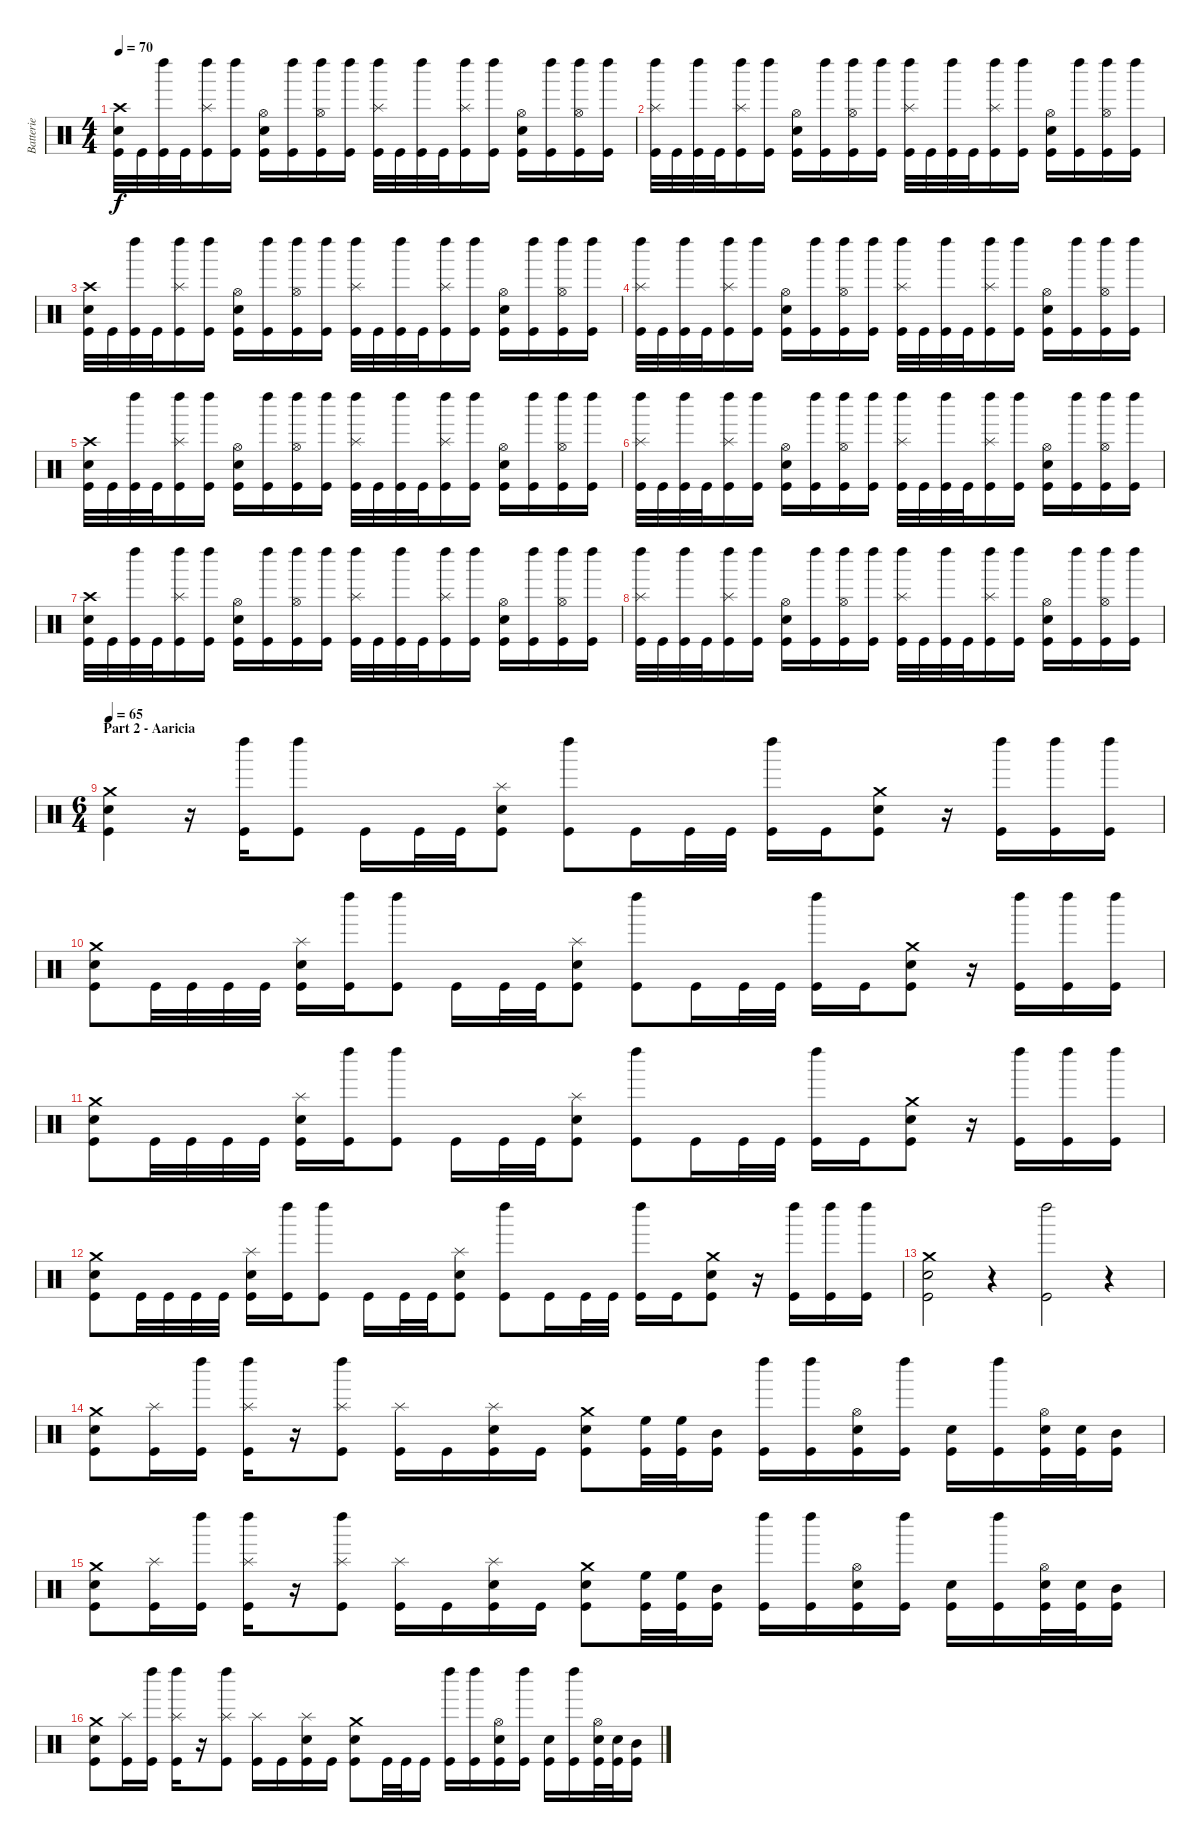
\track ("Batterie" "Batterie") {instrument percussion}
\staff {score}
\articulation defaults
\ts (4 4)
\tempo 70
\clef neutral
\ks c
("Kick (hit)" "Electric Snare (hit)" "Crash high (hit)").32{dy f} "Kick (hit)".32 ("Kick (hit)" "Left Maraca (hit)").32 "Kick (hit)".32 ("Kick (hit)" "Left Maraca (hit)" "Splash (hit)").16 ("Kick (hit)" "Left Maraca (hit)").16 ("Kick (hit)" "Electric Snare (hit)" "Hi-Hat (open)").16 ("Kick (hit)" "Left Maraca (hit)").16 ("Kick (hit)" "Left Maraca (hit)" "Hi-Hat (open)").16 ("Kick (hit)" "Left Maraca (hit)").16 ("Kick (hit)" "Left Maraca (hit)" "Splash (hit)").32 "Kick (hit)".32 ("Kick (hit)" "Left Maraca (hit)").32 "Kick (hit)".32 ("Kick (hit)" "Left Maraca (hit)" "Splash (hit)").16 ("Kick (hit)" "Left Maraca (hit)").16 ("Kick (hit)" "Electric Snare (hit)" "Hi-Hat (open)").16 ("Kick (hit)" "Left Maraca (hit)").16 ("Kick (hit)" "Left Maraca (hit)" "Hi-Hat (open)").16 ("Kick (hit)" "Left Maraca (hit)").16 |
("Kick (hit)" "Left Maraca (hit)" "Splash (hit)").32 "Kick (hit)".32 ("Kick (hit)" "Left Maraca (hit)").32 "Kick (hit)".32 ("Kick (hit)" "Left Maraca (hit)" "Splash (hit)").16 ("Kick (hit)" "Left Maraca (hit)").16 ("Kick (hit)" "Electric Snare (hit)" "Hi-Hat (open)").16 ("Kick (hit)" "Left Maraca (hit)").16 ("Kick (hit)" "Left Maraca (hit)" "Hi-Hat (open)").16 ("Kick (hit)" "Left Maraca (hit)").16 ("Kick (hit)" "Left Maraca (hit)" "Splash (hit)").32 "Kick (hit)".32 ("Kick (hit)" "Left Maraca (hit)").32 "Kick (hit)".32 ("Kick (hit)" "Left Maraca (hit)" "Splash (hit)").16 ("Kick (hit)" "Left Maraca (hit)").16 ("Kick (hit)" "Electric Snare (hit)" "Hi-Hat (open)").16 ("Kick (hit)" "Left Maraca (hit)").16 ("Kick (hit)" "Left Maraca (hit)" "Hi-Hat (open)").16 ("Kick (hit)" "Left Maraca (hit)").16 |
("Kick (hit)" "Electric Snare (hit)" "Crash high (hit)").32 "Kick (hit)".32 ("Kick (hit)" "Left Maraca (hit)").32 "Kick (hit)".32 ("Kick (hit)" "Left Maraca (hit)" "Splash (hit)").16 ("Kick (hit)" "Left Maraca (hit)").16 ("Kick (hit)" "Electric Snare (hit)" "Hi-Hat (open)").16 ("Kick (hit)" "Left Maraca (hit)").16 ("Kick (hit)" "Left Maraca (hit)" "Hi-Hat (open)").16 ("Kick (hit)" "Left Maraca (hit)").16 ("Kick (hit)" "Left Maraca (hit)" "Splash (hit)").32 "Kick (hit)".32 ("Kick (hit)" "Left Maraca (hit)").32 "Kick (hit)".32 ("Kick (hit)" "Left Maraca (hit)" "Splash (hit)").16 ("Kick (hit)" "Left Maraca (hit)").16 ("Kick (hit)" "Electric Snare (hit)" "Hi-Hat (open)").16 ("Kick (hit)" "Left Maraca (hit)").16 ("Kick (hit)" "Left Maraca (hit)" "Hi-Hat (open)").16 ("Kick (hit)" "Left Maraca (hit)").16 |
("Kick (hit)" "Left Maraca (hit)" "Splash (hit)").32 "Kick (hit)".32 ("Kick (hit)" "Left Maraca (hit)").32 "Kick (hit)".32 ("Kick (hit)" "Left Maraca (hit)" "Splash (hit)").16 ("Kick (hit)" "Left Maraca (hit)").16 ("Kick (hit)" "Electric Snare (hit)" "Hi-Hat (open)").16 ("Kick (hit)" "Left Maraca (hit)").16 ("Kick (hit)" "Left Maraca (hit)" "Hi-Hat (open)").16 ("Kick (hit)" "Left Maraca (hit)").16 ("Kick (hit)" "Left Maraca (hit)" "Splash (hit)").32 "Kick (hit)".32 ("Kick (hit)" "Left Maraca (hit)").32 "Kick (hit)".32 ("Kick (hit)" "Left Maraca (hit)" "Splash (hit)").16 ("Kick (hit)" "Left Maraca (hit)").16 ("Kick (hit)" "Electric Snare (hit)" "Hi-Hat (open)").16 ("Kick (hit)" "Left Maraca (hit)").16 ("Kick (hit)" "Left Maraca (hit)" "Hi-Hat (open)").16 ("Kick (hit)" "Left Maraca (hit)").16 |
("Kick (hit)" "Electric Snare (hit)" "Crash high (hit)").32 "Kick (hit)".32 ("Kick (hit)" "Left Maraca (hit)").32 "Kick (hit)".32 ("Kick (hit)" "Left Maraca (hit)" "Splash (hit)").16 ("Kick (hit)" "Left Maraca (hit)").16 ("Kick (hit)" "Electric Snare (hit)" "Hi-Hat (open)").16 ("Kick (hit)" "Left Maraca (hit)").16 ("Kick (hit)" "Left Maraca (hit)" "Hi-Hat (open)").16 ("Kick (hit)" "Left Maraca (hit)").16 ("Kick (hit)" "Left Maraca (hit)" "Splash (hit)").32 "Kick (hit)".32 ("Kick (hit)" "Left Maraca (hit)").32 "Kick (hit)".32 ("Kick (hit)" "Left Maraca (hit)" "Splash (hit)").16 ("Kick (hit)" "Left Maraca (hit)").16 ("Kick (hit)" "Electric Snare (hit)" "Hi-Hat (open)").16 ("Kick (hit)" "Left Maraca (hit)").16 ("Kick (hit)" "Left Maraca (hit)" "Hi-Hat (open)").16 ("Kick (hit)" "Left Maraca (hit)").16 |
("Kick (hit)" "Left Maraca (hit)" "Splash (hit)").32 "Kick (hit)".32 ("Kick (hit)" "Left Maraca (hit)").32 "Kick (hit)".32 ("Kick (hit)" "Left Maraca (hit)" "Splash (hit)").16 ("Kick (hit)" "Left Maraca (hit)").16 ("Kick (hit)" "Electric Snare (hit)" "Hi-Hat (open)").16 ("Kick (hit)" "Left Maraca (hit)").16 ("Kick (hit)" "Left Maraca (hit)" "Hi-Hat (open)").16 ("Kick (hit)" "Left Maraca (hit)").16 ("Kick (hit)" "Left Maraca (hit)" "Splash (hit)").32 "Kick (hit)".32 ("Kick (hit)" "Left Maraca (hit)").32 "Kick (hit)".32 ("Kick (hit)" "Left Maraca (hit)" "Splash (hit)").16 ("Kick (hit)" "Left Maraca (hit)").16 ("Kick (hit)" "Electric Snare (hit)" "Hi-Hat (open)").16 ("Kick (hit)" "Left Maraca (hit)").16 ("Kick (hit)" "Left Maraca (hit)" "Hi-Hat (open)").16 ("Kick (hit)" "Left Maraca (hit)").16 |
("Kick (hit)" "Electric Snare (hit)" "Crash high (hit)").32 "Kick (hit)".32 ("Kick (hit)" "Left Maraca (hit)").32 "Kick (hit)".32 ("Kick (hit)" "Left Maraca (hit)" "Splash (hit)").16 ("Kick (hit)" "Left Maraca (hit)").16 ("Kick (hit)" "Electric Snare (hit)" "Hi-Hat (open)").16 ("Kick (hit)" "Left Maraca (hit)").16 ("Kick (hit)" "Left Maraca (hit)" "Hi-Hat (open)").16 ("Kick (hit)" "Left Maraca (hit)").16 ("Kick (hit)" "Left Maraca (hit)" "Splash (hit)").32 "Kick (hit)".32 ("Kick (hit)" "Left Maraca (hit)").32 "Kick (hit)".32 ("Kick (hit)" "Left Maraca (hit)" "Splash (hit)").16 ("Kick (hit)" "Left Maraca (hit)").16 ("Kick (hit)" "Electric Snare (hit)" "Hi-Hat (open)").16 ("Kick (hit)" "Left Maraca (hit)").16 ("Kick (hit)" "Left Maraca (hit)" "Hi-Hat (open)").16 ("Kick (hit)" "Left Maraca (hit)").16 |
("Kick (hit)" "Left Maraca (hit)" "Splash (hit)").32 "Kick (hit)".32 ("Kick (hit)" "Left Maraca (hit)").32 "Kick (hit)".32 ("Kick (hit)" "Left Maraca (hit)" "Splash (hit)").16 ("Kick (hit)" "Left Maraca (hit)").16 ("Kick (hit)" "Electric Snare (hit)" "Hi-Hat (open)").16 ("Kick (hit)" "Left Maraca (hit)").16 ("Kick (hit)" "Left Maraca (hit)" "Hi-Hat (open)").16 ("Kick (hit)" "Left Maraca (hit)").16 ("Kick (hit)" "Left Maraca (hit)" "Splash (hit)").32 "Kick (hit)".32 ("Kick (hit)" "Left Maraca (hit)").32 "Kick (hit)".32 ("Kick (hit)" "Left Maraca (hit)" "Splash (hit)").16 ("Kick (hit)" "Left Maraca (hit)").16 ("Kick (hit)" "Electric Snare (hit)" "Hi-Hat (open)").16 ("Kick (hit)" "Left Maraca (hit)").16 ("Kick (hit)" "Left Maraca (hit)" "Hi-Hat (open)").16 ("Kick (hit)" "Left Maraca (hit)").16 |
\ts (6 4)
\section ("" "Part 2 - Aaricia")
\tempo 65
("Kick (hit)" "Electric Snare (hit)" "Crash medium (hit)").4 r.16 ("Kick (hit)" "Left Maraca (hit)").16 ("Kick (hit)" "Left Maraca (hit)").8 "Kick (hit)".16 "Kick (hit)".32 "Kick (hit)".32 ("Kick (hit)" "Electric Snare (hit)" "Splash (hit)").8 ("Kick (hit)" "Left Maraca (hit)").8 "Kick (hit)".16 "Kick (hit)".32 "Kick (hit)".32 ("Kick (hit)" "Left Maraca (hit)").16 "Kick (hit)".16 ("Kick (hit)" "Electric Snare (hit)" "Crash medium (hit)").8 r.16 ("Kick (hit)" "Left Maraca (hit)").16 ("Kick (hit)" "Left Maraca (hit)").16 ("Kick (hit)" "Left Maraca (hit)").16 |
("Kick (hit)" "Electric Snare (hit)" "Crash medium (hit)").8 "Kick (hit)".32 "Kick (hit)".32 "Kick (hit)".32 "Kick (hit)".32 ("Kick (hit)" "Electric Snare (hit)" "Splash (hit)").16 ("Kick (hit)" "Left Maraca (hit)").16 ("Kick (hit)" "Left Maraca (hit)").8 "Kick (hit)".16 "Kick (hit)".32 "Kick (hit)".32 ("Kick (hit)" "Electric Snare (hit)" "Splash (hit)").8 ("Kick (hit)" "Left Maraca (hit)").8 "Kick (hit)".16 "Kick (hit)".32 "Kick (hit)".32 ("Kick (hit)" "Left Maraca (hit)").16 "Kick (hit)".16 ("Kick (hit)" "Electric Snare (hit)" "Crash medium (hit)").8 r.16 ("Kick (hit)" "Left Maraca (hit)").16 ("Kick (hit)" "Left Maraca (hit)").16 ("Kick (hit)" "Left Maraca (hit)").16 |
("Kick (hit)" "Electric Snare (hit)" "Crash medium (hit)").8 "Kick (hit)".32 "Kick (hit)".32 "Kick (hit)".32 "Kick (hit)".32 ("Kick (hit)" "Electric Snare (hit)" "Splash (hit)").16 ("Kick (hit)" "Left Maraca (hit)").16 ("Kick (hit)" "Left Maraca (hit)").8 "Kick (hit)".16 "Kick (hit)".32 "Kick (hit)".32 ("Kick (hit)" "Electric Snare (hit)" "Splash (hit)").8 ("Kick (hit)" "Left Maraca (hit)").8 "Kick (hit)".16 "Kick (hit)".32 "Kick (hit)".32 ("Kick (hit)" "Left Maraca (hit)").16 "Kick (hit)".16 ("Kick (hit)" "Electric Snare (hit)" "Crash medium (hit)").8 r.16 ("Kick (hit)" "Left Maraca (hit)").16 ("Kick (hit)" "Left Maraca (hit)").16 ("Kick (hit)" "Left Maraca (hit)").16 |
("Kick (hit)" "Electric Snare (hit)" "Crash medium (hit)").8 "Kick (hit)".32 "Kick (hit)".32 "Kick (hit)".32 "Kick (hit)".32 ("Kick (hit)" "Electric Snare (hit)" "Splash (hit)").16 ("Kick (hit)" "Left Maraca (hit)").16 ("Kick (hit)" "Left Maraca (hit)").8 "Kick (hit)".16 "Kick (hit)".32 "Kick (hit)".32 ("Kick (hit)" "Electric Snare (hit)" "Splash (hit)").8 ("Kick (hit)" "Left Maraca (hit)").8 "Kick (hit)".16 "Kick (hit)".32 "Kick (hit)".32 ("Kick (hit)" "Left Maraca (hit)").16 "Kick (hit)".16 ("Kick (hit)" "Electric Snare (hit)" "Crash medium (hit)").8 r.16 ("Kick (hit)" "Left Maraca (hit)").16 ("Kick (hit)" "Left Maraca (hit)").16 ("Kick (hit)" "Left Maraca (hit)").16 |
("Kick (hit)" "Electric Snare (hit)" "Crash medium (hit)").2 r.4 ("Kick (hit)" "Left Maraca (hit)").2 r.4 |
("Kick (hit)" "Electric Snare (hit)" "Crash medium (hit)").8 ("Kick (hit)" "Splash (hit)").16 ("Kick (hit)" "Left Maraca (hit)").16 ("Kick (hit)" "Left Maraca (hit)" "Splash (hit)").16 r.16 ("Kick (hit)" "Left Maraca (hit)" "Splash (hit)").8 ("Kick (hit)" "Splash (hit)").16 "Kick (hit)".16 ("Kick (hit)" "Electric Snare (hit)" "Splash (hit)").16 "Kick (hit)".16 ("Kick (hit)" "Electric Snare (hit)" "Crash medium (hit)").8 ("Kick (hit)" "High Floor Tom (hit)").32 ("Kick (hit)" "High Floor Tom (hit)").32 ("Kick (hit)" "Mid Tom (hit)").16 ("Kick (hit)" "Left Maraca (hit)").16 ("Kick (hit)" "Left Maraca (hit)").16 ("Kick (hit)" "Electric Snare (hit)" "Hi-Hat (open)").16 ("Kick (hit)" "Left Maraca (hit)").16 ("Kick (hit)" "Electric Snare (hit)").16 ("Kick (hit)" "Left Maraca (hit)").16 ("Kick (hit)" "Electric Snare (hit)" "Hi-Hat (open)").32 ("Kick (hit)" "Electric Snare (hit)").32 ("Kick (hit)" "Mid Tom (hit)").16 |
("Kick (hit)" "Electric Snare (hit)" "Crash medium (hit)").8 ("Kick (hit)" "Splash (hit)").16 ("Kick (hit)" "Left Maraca (hit)").16 ("Kick (hit)" "Left Maraca (hit)" "Splash (hit)").16 r.16 ("Kick (hit)" "Left Maraca (hit)" "Splash (hit)").8 ("Kick (hit)" "Splash (hit)").16 "Kick (hit)".16 ("Kick (hit)" "Electric Snare (hit)" "Splash (hit)").16 "Kick (hit)".16 ("Kick (hit)" "Electric Snare (hit)" "Crash medium (hit)").8 ("Kick (hit)" "High Floor Tom (hit)").32 ("Kick (hit)" "High Floor Tom (hit)").32 ("Kick (hit)" "Mid Tom (hit)").16 ("Kick (hit)" "Left Maraca (hit)").16 ("Kick (hit)" "Left Maraca (hit)").16 ("Kick (hit)" "Electric Snare (hit)" "Hi-Hat (open)").16 ("Kick (hit)" "Left Maraca (hit)").16 ("Kick (hit)" "Electric Snare (hit)").16 ("Kick (hit)" "Left Maraca (hit)").16 ("Kick (hit)" "Electric Snare (hit)" "Hi-Hat (open)").32 ("Kick (hit)" "Electric Snare (hit)").32 ("Kick (hit)" "Mid Tom (hit)").16 |
("Kick (hit)" "Electric Snare (hit)" "Crash medium (hit)").8 ("Kick (hit)" "Splash (hit)").16 ("Kick (hit)" "Left Maraca (hit)").16 ("Kick (hit)" "Left Maraca (hit)" "Splash (hit)").16 r.16 ("Kick (hit)" "Left Maraca (hit)" "Splash (hit)").8 ("Kick (hit)" "Splash (hit)").16 "Kick (hit)".16 ("Kick (hit)" "Electric Snare (hit)" "Splash (hit)").16 "Kick (hit)".16 ("Kick (hit)" "Electric Snare (hit)" "Crash medium (hit)").8 "Kick (hit)".32 "Kick (hit)".32 "Kick (hit)".16 ("Kick (hit)" "Left Maraca (hit)").16 ("Kick (hit)" "Left Maraca (hit)").16 ("Kick (hit)" "Electric Snare (hit)" "Hi-Hat (open)").16 ("Kick (hit)" "Left Maraca (hit)").16 ("Kick (hit)" "Electric Snare (hit)").16 ("Kick (hit)" "Left Maraca (hit)").16 ("Kick (hit)" "Electric Snare (hit)" "Hi-Hat (open)").32 ("Kick (hit)" "Electric Snare (hit)").32 ("Kick (hit)" "Mid Tom (hit)").16
